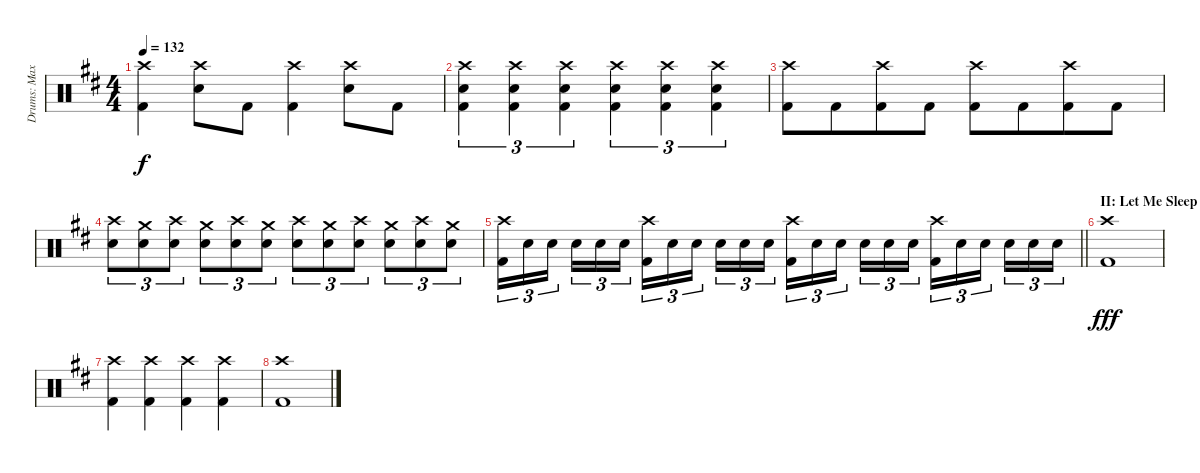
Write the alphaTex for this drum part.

\track ("Drums: Max" "Drums: Max") {instrument percussion}
\staff {score}
\articulation defaults
\ts (4 4)
\tempo 132
\clef neutral
\ks d
("Crash high (hit)" "Kick (hit) 2").4{dy f} ("Crash high (hit)" "Electric Snare (hit)").8 "Kick (hit) 2".8 ("Crash high (hit)" "Kick (hit) 2").4 ("Crash high (hit)" "Electric Snare (hit)").8 "Kick (hit) 2".8 |
("Crash high (hit)" "Electric Snare (hit)" "Kick (hit) 2").4{tu (3 2)} ("Crash high (hit)" "Electric Snare (hit)" "Kick (hit) 2").4{tu (3 2)} ("Crash high (hit)" "Electric Snare (hit)" "Kick (hit) 2").4{tu (3 2)} ("Crash high (hit)" "Electric Snare (hit)" "Kick (hit) 2").4{tu (3 2)} ("Crash high (hit)" "Electric Snare (hit)" "Kick (hit) 2").4{tu (3 2)} ("Crash high (hit)" "Electric Snare (hit)" "Kick (hit) 2").4{tu (3 2)} |
("Crash high (hit)" "Kick (hit) 2").8 "Kick (hit) 2".8{beam merge} ("Crash high (hit)" "Kick (hit) 2").8 "Kick (hit) 2".8 ("Crash high (hit)" "Kick (hit) 2").8 "Kick (hit) 2".8{beam merge} ("Crash high (hit)" "Kick (hit) 2").8 "Kick (hit) 2".8 |
("Crash high (hit)" "Electric Snare (hit)").8{tu (3 2)} ("Crash medium (hit)" "Electric Snare (hit)").8{tu (3 2)} ("Crash high (hit)" "Electric Snare (hit)").8{tu (3 2)} ("Crash medium (hit)" "Electric Snare (hit)").8{tu (3 2)} ("Crash high (hit)" "Electric Snare (hit)").8{tu (3 2)} ("Crash medium (hit)" "Electric Snare (hit)").8{tu (3 2)} ("Crash high (hit)" "Electric Snare (hit)").8{tu (3 2)} ("Crash medium (hit)" "Electric Snare (hit)").8{tu (3 2)} ("Crash high (hit)" "Electric Snare (hit)").8{tu (3 2)} ("Crash medium (hit)" "Electric Snare (hit)").8{tu (3 2)} ("Crash high (hit)" "Electric Snare (hit)").8{tu (3 2)} ("Crash medium (hit)" "Electric Snare (hit)").8{tu (3 2)} |
\barLineRight lightlight
("Crash high (hit)" "Kick (hit) 2").16{tu (3 2) beam merge} "Electric Snare (hit)".16{tu (3 2) beam merge} "Electric Snare (hit)".16{tu (3 2) beam splitsecondary} "Electric Snare (hit)".16{tu (3 2) beam merge} "Electric Snare (hit)".16{tu (3 2) beam merge} "Electric Snare (hit)".16{tu (3 2)} ("Crash high (hit)" "Kick (hit) 2").16{tu (3 2) beam merge} "Electric Snare (hit)".16{tu (3 2) beam merge} "Electric Snare (hit)".16{tu (3 2) beam splitsecondary} "Electric Snare (hit)".16{tu (3 2) beam merge} "Electric Snare (hit)".16{tu (3 2) beam merge} "Electric Snare (hit)".16{tu (3 2)} ("Crash high (hit)" "Kick (hit) 2").16{tu (3 2) beam merge} "Electric Snare (hit)".16{tu (3 2) beam merge} "Electric Snare (hit)".16{tu (3 2) beam splitsecondary} "Electric Snare (hit)".16{tu (3 2) beam merge} "Electric Snare (hit)".16{tu (3 2) beam merge} "Electric Snare (hit)".16{tu (3 2)} ("Crash high (hit)" "Kick (hit) 2").16{tu (3 2) beam merge} "Electric Snare (hit)".16{tu (3 2) beam merge} "Electric Snare (hit)".16{tu (3 2) beam splitsecondary} "Electric Snare (hit)".16{tu (3 2) beam merge} "Electric Snare (hit)".16{tu (3 2) beam merge} "Electric Snare (hit)".16{tu (3 2)} |
\section ("" "II: Let Me Sleep On It")
("Crash high (hit)" "Kick (hit) 2").1{dy fff} |
("Crash high (hit)" "Kick (hit) 2").4 ("Crash high (hit)" "Kick (hit) 2").4 ("Crash high (hit)" "Kick (hit) 2").4 ("Crash high (hit)" "Kick (hit) 2").4 |
("Crash high (hit)" "Kick (hit) 2").1
